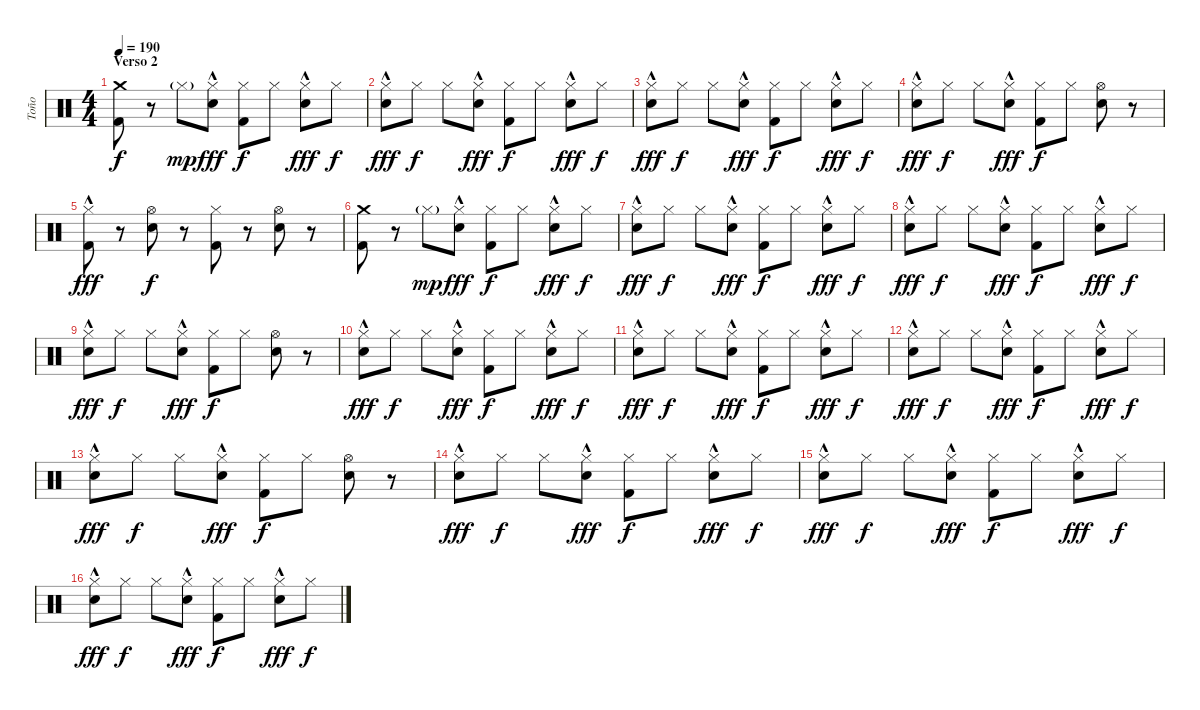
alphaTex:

\track ("Toño" "Toño") {instrument percussion}
\staff {score}
\articulation defaults
\ts (4 4)
\section ("" "Verso 2")
\tempo 190
\clef neutral
\ks c
("Crash medium (hit)" "Kick (hit) 2").8{dy f} r.8 "Hi-Hat (closed)"{g}.8{dy mp} ("Hi-Hat (closed)"{hac} "Snare (hit) 2").8{dy fff} ("Hi-Hat (closed)" "Kick (hit) 2").8{dy f} "Hi-Hat (closed)".8 ("Hi-Hat (closed)"{hac} "Snare (hit) 2").8{dy fff} "Hi-Hat (closed)".8{dy f} |
("Hi-Hat (closed)"{hac} "Snare (hit) 2").8{dy fff} "Hi-Hat (closed)".8{dy f} "Hi-Hat (closed)".8 ("Hi-Hat (closed)"{hac} "Snare (hit) 2").8{dy fff} ("Hi-Hat (closed)" "Kick (hit) 2").8{dy f} "Hi-Hat (closed)".8 ("Hi-Hat (closed)"{hac} "Snare (hit) 2").8{dy fff} "Hi-Hat (closed)".8{dy f} |
("Hi-Hat (closed)"{hac} "Snare (hit) 2").8{dy fff} "Hi-Hat (closed)".8{dy f} "Hi-Hat (closed)".8 ("Hi-Hat (closed)"{hac} "Snare (hit) 2").8{dy fff} ("Hi-Hat (closed)" "Kick (hit) 2").8{dy f} "Hi-Hat (closed)".8 ("Hi-Hat (closed)"{hac} "Snare (hit) 2").8{dy fff} "Hi-Hat (closed)".8{dy f} |
("Hi-Hat (closed)"{hac} "Snare (hit) 2").8{dy fff} "Hi-Hat (closed)".8{dy f} "Hi-Hat (closed)".8 ("Hi-Hat (closed)"{hac} "Snare (hit) 2").8{dy fff} ("Hi-Hat (closed)" "Kick (hit) 2").8{dy f} "Hi-Hat (closed)".8 ("Hi-Hat (open)" "Snare (hit) 2").8 r.8 |
("Hi-Hat (closed)"{hac} "Kick (hit) 2").8{dy fff} r.8 ("Hi-Hat (open)" "Snare (hit) 2").8{dy f} r.8 ("Hi-Hat (closed)" "Kick (hit) 2").8 r.8 ("Hi-Hat (open)" "Snare (hit) 2").8 r.8 |
("Crash medium (hit)" "Kick (hit) 2").8 r.8 "Hi-Hat (closed)"{g}.8{dy mp} ("Hi-Hat (closed)"{hac} "Snare (hit) 2").8{dy fff} ("Hi-Hat (closed)" "Kick (hit) 2").8{dy f} "Hi-Hat (closed)".8 ("Hi-Hat (closed)"{hac} "Snare (hit) 2").8{dy fff} "Hi-Hat (closed)".8{dy f} |
("Hi-Hat (closed)"{hac} "Snare (hit) 2").8{dy fff} "Hi-Hat (closed)".8{dy f} "Hi-Hat (closed)".8 ("Hi-Hat (closed)"{hac} "Snare (hit) 2").8{dy fff} ("Hi-Hat (closed)" "Kick (hit) 2").8{dy f} "Hi-Hat (closed)".8 ("Hi-Hat (closed)"{hac} "Snare (hit) 2").8{dy fff} "Hi-Hat (closed)".8{dy f} |
("Hi-Hat (closed)"{hac} "Snare (hit) 2").8{dy fff} "Hi-Hat (closed)".8{dy f} "Hi-Hat (closed)".8 ("Hi-Hat (closed)"{hac} "Snare (hit) 2").8{dy fff} ("Hi-Hat (closed)" "Kick (hit) 2").8{dy f} "Hi-Hat (closed)".8 ("Hi-Hat (closed)"{hac} "Snare (hit) 2").8{dy fff} "Hi-Hat (closed)".8{dy f} |
("Hi-Hat (closed)"{hac} "Snare (hit) 2").8{dy fff} "Hi-Hat (closed)".8{dy f} "Hi-Hat (closed)".8 ("Hi-Hat (closed)"{hac} "Snare (hit) 2").8{dy fff} ("Hi-Hat (closed)" "Kick (hit) 2").8{dy f} "Hi-Hat (closed)".8 ("Hi-Hat (open)" "Snare (hit) 2").8 r.8 |
("Hi-Hat (closed)"{hac} "Snare (hit) 2").8{dy fff} "Hi-Hat (closed)".8{dy f} "Hi-Hat (closed)".8 ("Hi-Hat (closed)"{hac} "Snare (hit) 2").8{dy fff} ("Hi-Hat (closed)" "Kick (hit) 2").8{dy f} "Hi-Hat (closed)".8 ("Hi-Hat (closed)"{hac} "Snare (hit) 2").8{dy fff} "Hi-Hat (closed)".8{dy f} |
("Hi-Hat (closed)"{hac} "Snare (hit) 2").8{dy fff} "Hi-Hat (closed)".8{dy f} "Hi-Hat (closed)".8 ("Hi-Hat (closed)"{hac} "Snare (hit) 2").8{dy fff} ("Hi-Hat (closed)" "Kick (hit) 2").8{dy f} "Hi-Hat (closed)".8 ("Hi-Hat (closed)"{hac} "Snare (hit) 2").8{dy fff} "Hi-Hat (closed)".8{dy f} |
("Hi-Hat (closed)"{hac} "Snare (hit) 2").8{dy fff} "Hi-Hat (closed)".8{dy f} "Hi-Hat (closed)".8 ("Hi-Hat (closed)"{hac} "Snare (hit) 2").8{dy fff} ("Hi-Hat (closed)" "Kick (hit) 2").8{dy f} "Hi-Hat (closed)".8 ("Hi-Hat (closed)"{hac} "Snare (hit) 2").8{dy fff} "Hi-Hat (closed)".8{dy f} |
("Hi-Hat (closed)"{hac} "Snare (hit) 2").8{dy fff} "Hi-Hat (closed)".8{dy f} "Hi-Hat (closed)".8 ("Hi-Hat (closed)"{hac} "Snare (hit) 2").8{dy fff} ("Hi-Hat (closed)" "Kick (hit) 2").8{dy f} "Hi-Hat (closed)".8 ("Hi-Hat (open)" "Snare (hit) 2").8 r.8 |
("Hi-Hat (closed)"{hac} "Snare (hit) 2").8{dy fff} "Hi-Hat (closed)".8{dy f} "Hi-Hat (closed)".8 ("Hi-Hat (closed)"{hac} "Snare (hit) 2").8{dy fff} ("Hi-Hat (closed)" "Kick (hit) 2").8{dy f} "Hi-Hat (closed)".8 ("Hi-Hat (closed)"{hac} "Snare (hit) 2").8{dy fff} "Hi-Hat (closed)".8{dy f} |
("Hi-Hat (closed)"{hac} "Snare (hit) 2").8{dy fff} "Hi-Hat (closed)".8{dy f} "Hi-Hat (closed)".8 ("Hi-Hat (closed)"{hac} "Snare (hit) 2").8{dy fff} ("Hi-Hat (closed)" "Kick (hit) 2").8{dy f} "Hi-Hat (closed)".8 ("Hi-Hat (closed)"{hac} "Snare (hit) 2").8{dy fff} "Hi-Hat (closed)".8{dy f} |
("Hi-Hat (closed)"{hac} "Snare (hit) 2").8{dy fff} "Hi-Hat (closed)".8{dy f} "Hi-Hat (closed)".8 ("Hi-Hat (closed)"{hac} "Snare (hit) 2").8{dy fff} ("Hi-Hat (closed)" "Kick (hit) 2").8{dy f} "Hi-Hat (closed)".8 ("Hi-Hat (closed)"{hac} "Snare (hit) 2").8{dy fff} "Hi-Hat (closed)".8{dy f}
